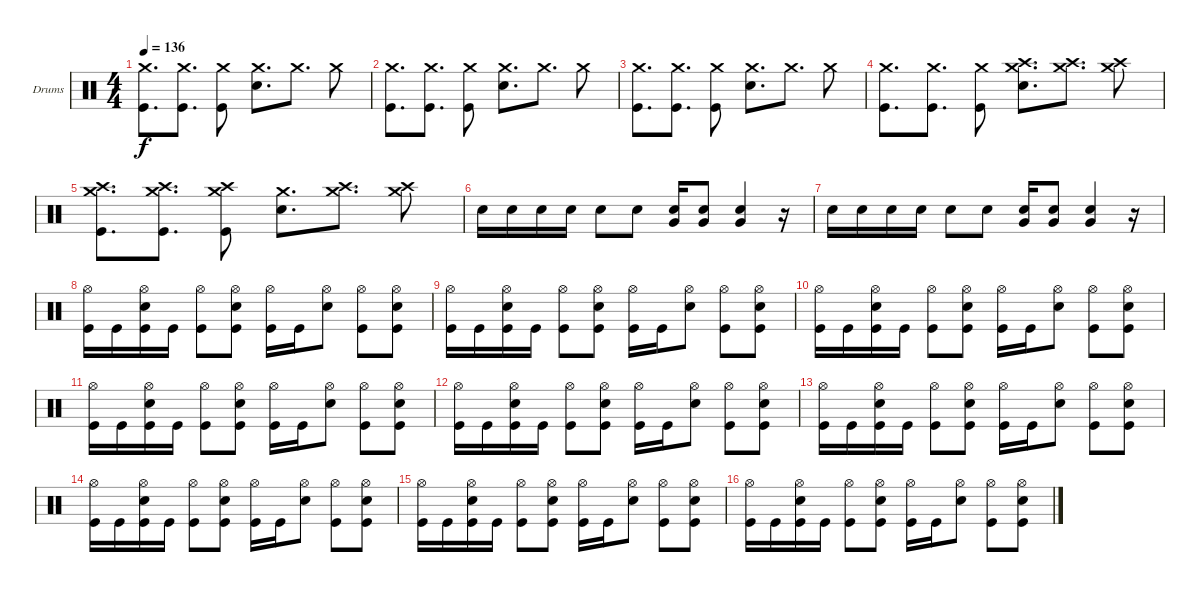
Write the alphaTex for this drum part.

\defaultSystemsLayout 4
\bracketExtendMode groupsimilarinstruments
\firstSystemTrackNameOrientation horizontal
\otherSystemsTrackNameOrientation horizontal
\track ("Lars Ulrich (Drums)" "Drums") {instrument percussion}
\staff {score}
\articulation defaults
\ts (4 4)
\tempo 136
\clef neutral
\ks c
("Crash medium (hit)" "Kick (hit)").8{d dy f} ("Crash medium (hit)" "Kick (hit)").8{d} ("Crash medium (hit)" "Kick (hit)").8 ("Crash medium (hit)" "Snare (hit) 2").8{d} "Crash medium (hit)".8{d} "Crash medium (hit)".8 |
("Crash medium (hit)" "Kick (hit)").8{d} ("Crash medium (hit)" "Kick (hit)").8{d} ("Crash medium (hit)" "Kick (hit)").8 ("Crash medium (hit)" "Snare (hit) 2").8{d} "Crash medium (hit)".8{d} "Crash medium (hit)".8 |
("Crash medium (hit)" "Kick (hit)").8{d} ("Crash medium (hit)" "Kick (hit)").8{d} ("Crash medium (hit)" "Kick (hit)").8 ("Crash medium (hit)" "Snare (hit) 2").8{d} "Crash medium (hit)".8{d} "Crash medium (hit)".8 |
("Crash medium (hit)" "Kick (hit)").8{d} ("Crash medium (hit)" "Kick (hit)").8{d} ("Crash medium (hit)" "Kick (hit)").8 ("Crash high (hit)" "Crash medium (hit)" "Snare (hit) 2").8{d} ("Crash high (hit)" "Crash medium (hit)").8{d} ("Crash high (hit)" "Crash medium (hit)").8 |
("Crash high (hit)" "Crash medium (hit)" "Kick (hit)").8{d} ("Crash high (hit)" "Crash medium (hit)" "Kick (hit)").8{d} ("Crash high (hit)" "Crash medium (hit)" "Kick (hit)").8 ("Crash medium (hit)" "Snare (hit) 2").8{d} ("Crash high (hit)" "Crash medium (hit)").8{d} ("Crash high (hit)" "Crash medium (hit)").8 |
"Snare (hit) 2".16 "Snare (hit) 2".16 "Snare (hit) 2".16 "Snare (hit) 2".16 "Snare (hit) 2".8 "Snare (hit) 2".8 ("Snare (hit) 2" "Very Low Tom (hit)").16 ("Snare (hit) 2" "Very Low Tom (hit)").8 ("Snare (hit) 2" "Very Low Tom (hit)").4 r.16 |
"Snare (hit) 2".16 "Snare (hit) 2".16 "Snare (hit) 2".16 "Snare (hit) 2".16 "Snare (hit) 2".8 "Snare (hit) 2".8 ("Snare (hit) 2" "Very Low Tom (hit)").16 ("Snare (hit) 2" "Very Low Tom (hit)").8 ("Snare (hit) 2" "Very Low Tom (hit)").4 r.16 |
("Hi-Hat (open)" "Kick (hit)").16 "Kick (hit)".16 ("Hi-Hat (open)" "Snare (hit) 2" "Kick (hit)").16 "Kick (hit)".16 ("Hi-Hat (open)" "Kick (hit)").8 ("Hi-Hat (open)" "Snare (hit) 2" "Kick (hit)").8 ("Hi-Hat (open)" "Kick (hit)").16 "Kick (hit)".16 ("Hi-Hat (open)" "Snare (hit) 2").8 ("Hi-Hat (open)" "Kick (hit)").8 ("Hi-Hat (open)" "Snare (hit) 2" "Kick (hit)").8 |
("Hi-Hat (open)" "Kick (hit)").16 "Kick (hit)".16 ("Hi-Hat (open)" "Snare (hit) 2" "Kick (hit)").16 "Kick (hit)".16 ("Hi-Hat (open)" "Kick (hit)").8 ("Hi-Hat (open)" "Snare (hit) 2" "Kick (hit)").8 ("Hi-Hat (open)" "Kick (hit)").16 "Kick (hit)".16 ("Hi-Hat (open)" "Snare (hit) 2").8 ("Hi-Hat (open)" "Kick (hit)").8 ("Hi-Hat (open)" "Snare (hit) 2" "Kick (hit)").8 |
("Hi-Hat (open)" "Kick (hit)").16 "Kick (hit)".16 ("Hi-Hat (open)" "Snare (hit) 2" "Kick (hit)").16 "Kick (hit)".16 ("Hi-Hat (open)" "Kick (hit)").8 ("Hi-Hat (open)" "Snare (hit) 2" "Kick (hit)").8 ("Hi-Hat (open)" "Kick (hit)").16 "Kick (hit)".16 ("Hi-Hat (open)" "Snare (hit) 2").8 ("Hi-Hat (open)" "Kick (hit)").8 ("Hi-Hat (open)" "Snare (hit) 2" "Kick (hit)").8 |
("Hi-Hat (open)" "Kick (hit)").16 "Kick (hit)".16 ("Hi-Hat (open)" "Snare (hit) 2" "Kick (hit)").16 "Kick (hit)".16 ("Hi-Hat (open)" "Kick (hit)").8 ("Hi-Hat (open)" "Snare (hit) 2" "Kick (hit)").8 ("Hi-Hat (open)" "Kick (hit)").16 "Kick (hit)".16 ("Hi-Hat (open)" "Snare (hit) 2").8 ("Hi-Hat (open)" "Kick (hit)").8 ("Hi-Hat (open)" "Snare (hit) 2" "Kick (hit)").8 |
("Hi-Hat (open)" "Kick (hit)").16 "Kick (hit)".16 ("Hi-Hat (open)" "Snare (hit) 2" "Kick (hit)").16 "Kick (hit)".16 ("Hi-Hat (open)" "Kick (hit)").8 ("Hi-Hat (open)" "Snare (hit) 2" "Kick (hit)").8 ("Hi-Hat (open)" "Kick (hit)").16 "Kick (hit)".16 ("Hi-Hat (open)" "Snare (hit) 2").8 ("Hi-Hat (open)" "Kick (hit)").8 ("Hi-Hat (open)" "Snare (hit) 2" "Kick (hit)").8 |
("Hi-Hat (open)" "Kick (hit)").16 "Kick (hit)".16 ("Hi-Hat (open)" "Snare (hit) 2" "Kick (hit)").16 "Kick (hit)".16 ("Hi-Hat (open)" "Kick (hit)").8 ("Hi-Hat (open)" "Snare (hit) 2" "Kick (hit)").8 ("Hi-Hat (open)" "Kick (hit)").16 "Kick (hit)".16 ("Hi-Hat (open)" "Snare (hit) 2").8 ("Hi-Hat (open)" "Kick (hit)").8 ("Hi-Hat (open)" "Snare (hit) 2" "Kick (hit)").8 |
("Hi-Hat (open)" "Kick (hit)").16 "Kick (hit)".16 ("Hi-Hat (open)" "Snare (hit) 2" "Kick (hit)").16 "Kick (hit)".16 ("Hi-Hat (open)" "Kick (hit)").8 ("Hi-Hat (open)" "Snare (hit) 2" "Kick (hit)").8 ("Hi-Hat (open)" "Kick (hit)").16 "Kick (hit)".16 ("Hi-Hat (open)" "Snare (hit) 2").8 ("Hi-Hat (open)" "Kick (hit)").8 ("Hi-Hat (open)" "Snare (hit) 2" "Kick (hit)").8 |
("Hi-Hat (open)" "Kick (hit)").16 "Kick (hit)".16 ("Hi-Hat (open)" "Snare (hit) 2" "Kick (hit)").16 "Kick (hit)".16 ("Hi-Hat (open)" "Kick (hit)").8 ("Hi-Hat (open)" "Snare (hit) 2" "Kick (hit)").8 ("Hi-Hat (open)" "Kick (hit)").16 "Kick (hit)".16 ("Hi-Hat (open)" "Snare (hit) 2").8 ("Hi-Hat (open)" "Kick (hit)").8 ("Hi-Hat (open)" "Snare (hit) 2" "Kick (hit)").8 |
("Hi-Hat (open)" "Kick (hit)").16 "Kick (hit)".16 ("Hi-Hat (open)" "Snare (hit) 2" "Kick (hit)").16 "Kick (hit)".16 ("Hi-Hat (open)" "Kick (hit)").8 ("Hi-Hat (open)" "Snare (hit) 2" "Kick (hit)").8 ("Hi-Hat (open)" "Kick (hit)").16 "Kick (hit)".16 ("Hi-Hat (open)" "Snare (hit) 2").8 ("Hi-Hat (open)" "Kick (hit)").8 ("Hi-Hat (open)" "Snare (hit) 2" "Kick (hit)").8
